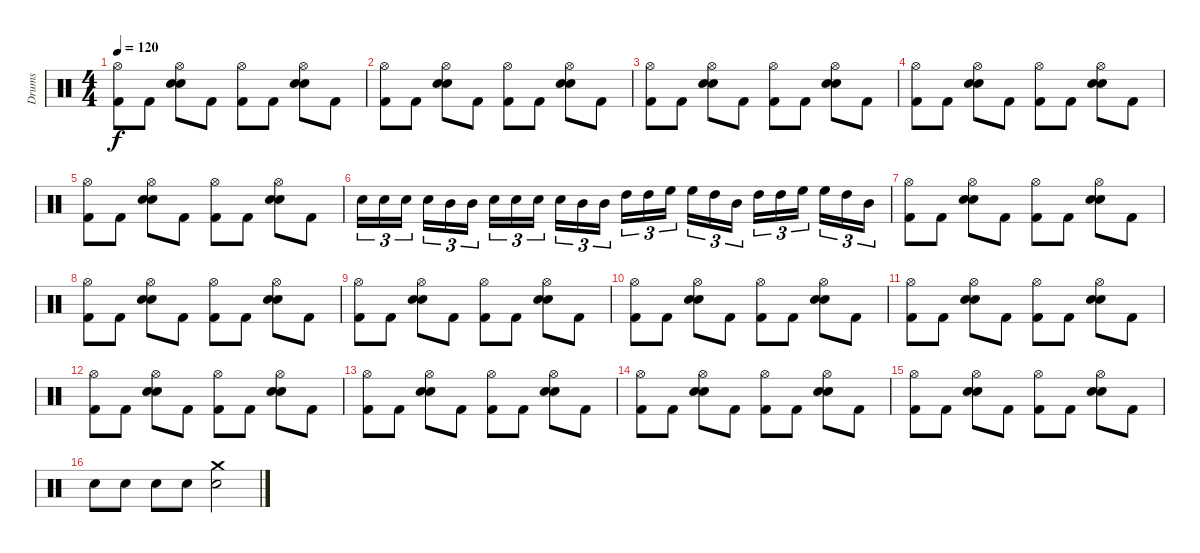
\track ("Drums" "Drums") {instrument percussion}
\staff {score}
\articulation defaults
\ts (4 4)
\tempo 120
\clef neutral
\ks c
("Hi-Hat (open)" "Kick (hit) 2").8{dy f} "Kick (hit) 2".8 ("Hi-Hat (open)" "Electric Snare (hit)" "Snare (hit) 2").8 "Kick (hit) 2".8 ("Hi-Hat (open)" "Kick (hit) 2").8 "Kick (hit) 2".8 ("Hi-Hat (open)" "Electric Snare (hit)" "Snare (hit) 2").8 "Kick (hit) 2".8 |
("Hi-Hat (open)" "Kick (hit) 2").8 "Kick (hit) 2".8 ("Hi-Hat (open)" "Electric Snare (hit)" "Snare (hit) 2").8 "Kick (hit) 2".8 ("Hi-Hat (open)" "Kick (hit) 2").8 "Kick (hit) 2".8 ("Hi-Hat (open)" "Electric Snare (hit)" "Snare (hit) 2").8 "Kick (hit) 2".8 |
("Hi-Hat (open)" "Kick (hit) 2").8 "Kick (hit) 2".8 ("Hi-Hat (open)" "Electric Snare (hit)" "Snare (hit) 2").8 "Kick (hit) 2".8 ("Hi-Hat (open)" "Kick (hit) 2").8 "Kick (hit) 2".8 ("Hi-Hat (open)" "Electric Snare (hit)" "Snare (hit) 2").8 "Kick (hit) 2".8 |
("Hi-Hat (open)" "Kick (hit) 2").8 "Kick (hit) 2".8 ("Hi-Hat (open)" "Electric Snare (hit)" "Snare (hit) 2").8 "Kick (hit) 2".8 ("Hi-Hat (open)" "Kick (hit) 2").8 "Kick (hit) 2".8 ("Hi-Hat (open)" "Electric Snare (hit)" "Snare (hit) 2").8 "Kick (hit) 2".8 |
("Hi-Hat (open)" "Kick (hit) 2").8 "Kick (hit) 2".8 ("Hi-Hat (open)" "Electric Snare (hit)" "Snare (hit) 2").8 "Kick (hit) 2".8 ("Hi-Hat (open)" "Kick (hit) 2").8 "Kick (hit) 2".8 ("Hi-Hat (open)" "Electric Snare (hit)" "Snare (hit) 2").8 "Kick (hit) 2".8 |
"Snare (hit) 2".16{tu (3 2)} "Snare (hit) 2".16{tu (3 2)} "Electric Snare (hit)".16{tu (3 2)} "Electric Snare (hit)".16{tu (3 2)} "Mid Tom (hit)".16{tu (3 2)} "Mid Tom (hit)".16{tu (3 2)} "Snare (hit) 2".16{tu (3 2)} "Snare (hit) 2".16{tu (3 2)} "Electric Snare (hit)".16{tu (3 2)} "Electric Snare (hit)".16{tu (3 2)} "Mid Tom (hit)".16{tu (3 2)} "Mid Tom (hit)".16{tu (3 2)} "High Tom (hit)".16{tu (3 2)} "High Tom (hit)".16{tu (3 2)} "High Floor Tom (hit)".16{tu (3 2)} "High Floor Tom (hit)".16{tu (3 2)} "High Tom (hit)".16{tu (3 2)} "Mid Tom (hit)".16{tu (3 2)} "High Tom (hit)".16{tu (3 2)} "High Tom (hit)".16{tu (3 2)} "High Floor Tom (hit)".16{tu (3 2)} "High Floor Tom (hit)".16{tu (3 2)} "High Tom (hit)".16{tu (3 2)} "Mid Tom (hit)".16{tu (3 2)} |
("Hi-Hat (open)" "Kick (hit) 2").8 "Kick (hit) 2".8 ("Hi-Hat (open)" "Electric Snare (hit)" "Snare (hit) 2").8 "Kick (hit) 2".8 ("Hi-Hat (open)" "Kick (hit) 2").8 "Kick (hit) 2".8 ("Hi-Hat (open)" "Electric Snare (hit)" "Snare (hit) 2").8 "Kick (hit) 2".8 |
("Hi-Hat (open)" "Kick (hit) 2").8 "Kick (hit) 2".8 ("Hi-Hat (open)" "Electric Snare (hit)" "Snare (hit) 2").8 "Kick (hit) 2".8 ("Hi-Hat (open)" "Kick (hit) 2").8 "Kick (hit) 2".8 ("Hi-Hat (open)" "Electric Snare (hit)" "Snare (hit) 2").8 "Kick (hit) 2".8 |
("Hi-Hat (open)" "Kick (hit) 2").8 "Kick (hit) 2".8 ("Hi-Hat (open)" "Electric Snare (hit)" "Snare (hit) 2").8 "Kick (hit) 2".8 ("Hi-Hat (open)" "Kick (hit) 2").8 "Kick (hit) 2".8 ("Hi-Hat (open)" "Electric Snare (hit)" "Snare (hit) 2").8 "Kick (hit) 2".8 |
("Hi-Hat (open)" "Kick (hit) 2").8 "Kick (hit) 2".8 ("Hi-Hat (open)" "Electric Snare (hit)" "Snare (hit) 2").8 "Kick (hit) 2".8 ("Hi-Hat (open)" "Kick (hit) 2").8 "Kick (hit) 2".8 ("Hi-Hat (open)" "Electric Snare (hit)" "Snare (hit) 2").8 "Kick (hit) 2".8 |
("Hi-Hat (open)" "Kick (hit) 2").8 "Kick (hit) 2".8 ("Hi-Hat (open)" "Electric Snare (hit)" "Snare (hit) 2").8 "Kick (hit) 2".8 ("Hi-Hat (open)" "Kick (hit) 2").8 "Kick (hit) 2".8 ("Hi-Hat (open)" "Electric Snare (hit)" "Snare (hit) 2").8 "Kick (hit) 2".8 |
("Hi-Hat (open)" "Kick (hit) 2").8 "Kick (hit) 2".8 ("Hi-Hat (open)" "Electric Snare (hit)" "Snare (hit) 2").8 "Kick (hit) 2".8 ("Hi-Hat (open)" "Kick (hit) 2").8 "Kick (hit) 2".8 ("Hi-Hat (open)" "Electric Snare (hit)" "Snare (hit) 2").8 "Kick (hit) 2".8 |
("Hi-Hat (open)" "Kick (hit) 2").8 "Kick (hit) 2".8 ("Hi-Hat (open)" "Electric Snare (hit)" "Snare (hit) 2").8 "Kick (hit) 2".8 ("Hi-Hat (open)" "Kick (hit) 2").8 "Kick (hit) 2".8 ("Hi-Hat (open)" "Electric Snare (hit)" "Snare (hit) 2").8 "Kick (hit) 2".8 |
("Hi-Hat (open)" "Kick (hit) 2").8 "Kick (hit) 2".8 ("Hi-Hat (open)" "Electric Snare (hit)" "Snare (hit) 2").8 "Kick (hit) 2".8 ("Hi-Hat (open)" "Kick (hit) 2").8 "Kick (hit) 2".8 ("Hi-Hat (open)" "Electric Snare (hit)" "Snare (hit) 2").8 "Kick (hit) 2".8 |
("Hi-Hat (open)" "Kick (hit) 2").8 "Kick (hit) 2".8 ("Hi-Hat (open)" "Electric Snare (hit)" "Snare (hit) 2").8 "Kick (hit) 2".8 ("Hi-Hat (open)" "Kick (hit) 2").8 "Kick (hit) 2".8 ("Hi-Hat (open)" "Electric Snare (hit)" "Snare (hit) 2").8 "Kick (hit) 2".8 |
"Electric Snare (hit)".8 "Electric Snare (hit)".8 "Electric Snare (hit)".8 "Electric Snare (hit)".8 ("Crash medium (hit)" "Electric Snare (hit)").2
